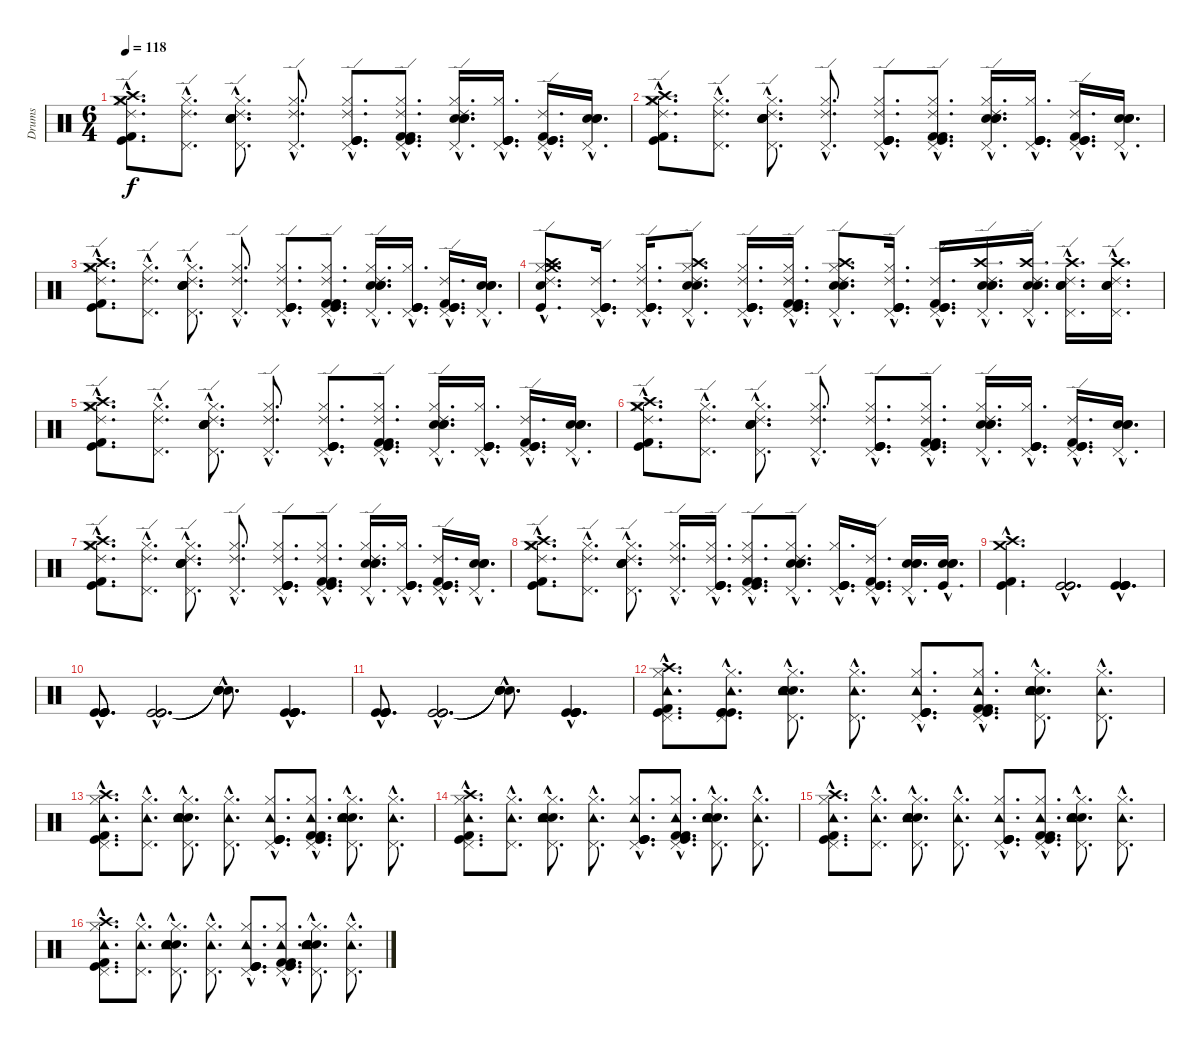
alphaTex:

\track ("Drums" "Drums") {instrument percussion}
\staff {score}
\articulation defaults
\ts (6 4)
\tempo 118
\clef neutral
\ks c
("Ride (edge) 2"{hac} "Crash high (hit)"{hac} "Kick (hit)"{hac} "Kick (hit) 2"{hac} "Hi-Hat (closed)"{hac} "Crash medium (hit)"{hac}).8{d dy f} ("Pedal Hi-Hat (hit)"{hac} "Hi-Hat (closed)"{hac} "Ride (edge) 2"{hac}).8{d} ("Pedal Hi-Hat (hit)"{hac} "Electric Snare (hit)"{hac} "Hand Clap (hit)"{hac} "Hand Clap (hit)"{hac} "Hi-Hat (closed)"{hac} "Ride (edge) 2"{hac}).8{d} ("Pedal Hi-Hat (hit)"{hac} "Hi-Hat (closed)"{hac} "Ride (edge) 2"{hac}).8{d} ("Pedal Hi-Hat (hit)"{hac} "Kick (hit)"{hac} "Kick (hit)"{hac} "Kick (hit)"{hac} "Hi-Hat (closed)"{hac} "Ride (edge) 2"{hac}).8{d} ("Pedal Hi-Hat (hit)"{hac} "Kick (hit)"{hac} "Kick (hit) 2"{hac} "Kick (hit) 2"{hac} "Hi-Hat (closed)"{hac} "Ride (edge) 2"{hac}).8{d} ("Pedal Hi-Hat (hit)"{hac} "Hand Clap (hit)"{hac} "Hand Clap (hit)"{hac} "Electric Snare (hit)"{hac} "Hi-Hat (closed)"{hac} "Ride (edge) 2"{hac}).16{d} ("Pedal Hi-Hat (hit)"{hac} "Kick (hit)"{hac} "Kick (hit)"{hac} "Kick (hit)"{hac} "Hi-Hat (closed)"{hac}).16{d} ("Pedal Hi-Hat (hit)"{hac} "Kick (hit)"{hac} "Kick (hit) 2"{hac} "Kick (hit)"{hac} "Ride (edge) 2"{hac}).16{d} ("Pedal Hi-Hat (hit)"{hac} "Electric Snare (hit)"{hac} "Hand Clap (hit)"{hac} "Electric Snare (hit)"{hac}).16{d} |
("Ride (edge) 2"{hac} "Crash high (hit)"{hac} "Kick (hit)"{hac} "Kick (hit) 2"{hac} "Hi-Hat (closed)"{hac} "Crash medium (hit)"{hac}).8{d} ("Pedal Hi-Hat (hit)"{hac} "Hi-Hat (closed)"{hac} "Ride (edge) 2"{hac}).8{d} ("Pedal Hi-Hat (hit)"{hac} "Electric Snare (hit)"{hac} "Hand Clap (hit)"{hac} "Hand Clap (hit)"{hac} "Hi-Hat (closed)"{hac} "Ride (edge) 2"{hac}).8{d} ("Pedal Hi-Hat (hit)"{hac} "Hi-Hat (closed)"{hac} "Ride (edge) 2"{hac}).8{d} ("Pedal Hi-Hat (hit)"{hac} "Kick (hit)"{hac} "Kick (hit)"{hac} "Kick (hit)"{hac} "Hi-Hat (closed)"{hac} "Ride (edge) 2"{hac}).8{d} ("Pedal Hi-Hat (hit)"{hac} "Kick (hit)"{hac} "Kick (hit) 2"{hac} "Kick (hit) 2"{hac} "Hi-Hat (closed)"{hac} "Ride (edge) 2"{hac}).8{d} ("Pedal Hi-Hat (hit)"{hac} "Hand Clap (hit)"{hac} "Hand Clap (hit)"{hac} "Electric Snare (hit)"{hac} "Hi-Hat (closed)"{hac} "Ride (edge) 2"{hac}).16{d} ("Pedal Hi-Hat (hit)"{hac} "Kick (hit)"{hac} "Kick (hit)"{hac} "Kick (hit)"{hac} "Hi-Hat (closed)"{hac}).16{d} ("Pedal Hi-Hat (hit)"{hac} "Kick (hit)"{hac} "Kick (hit) 2"{hac} "Kick (hit)"{hac} "Ride (edge) 2"{hac}).16{d} ("Pedal Hi-Hat (hit)"{hac} "Electric Snare (hit)"{hac} "Hand Clap (hit)"{hac} "Electric Snare (hit)"{hac}).16{d} |
("Ride (edge) 2"{hac} "Crash high (hit)"{hac} "Kick (hit)"{hac} "Kick (hit) 2"{hac} "Hi-Hat (closed)"{hac} "Crash medium (hit)"{hac}).8{d} ("Pedal Hi-Hat (hit)"{hac} "Hi-Hat (closed)"{hac} "Ride (edge) 2"{hac}).8{d} ("Pedal Hi-Hat (hit)"{hac} "Electric Snare (hit)"{hac} "Hand Clap (hit)"{hac} "Hand Clap (hit)"{hac} "Hi-Hat (closed)"{hac} "Ride (edge) 2"{hac}).8{d} ("Pedal Hi-Hat (hit)"{hac} "Hi-Hat (closed)"{hac} "Ride (edge) 2"{hac}).8{d} ("Pedal Hi-Hat (hit)"{hac} "Kick (hit)"{hac} "Kick (hit)"{hac} "Kick (hit)"{hac} "Hi-Hat (closed)"{hac} "Ride (edge) 2"{hac}).8{d} ("Pedal Hi-Hat (hit)"{hac} "Kick (hit)"{hac} "Kick (hit) 2"{hac} "Kick (hit) 2"{hac} "Hi-Hat (closed)"{hac} "Ride (edge) 2"{hac}).8{d} ("Pedal Hi-Hat (hit)"{hac} "Hand Clap (hit)"{hac} "Hand Clap (hit)"{hac} "Electric Snare (hit)"{hac} "Hi-Hat (closed)"{hac} "Ride (edge) 2"{hac}).16{d} ("Pedal Hi-Hat (hit)"{hac} "Kick (hit)"{hac} "Kick (hit)"{hac} "Kick (hit)"{hac} "Hi-Hat (closed)"{hac}).16{d} ("Pedal Hi-Hat (hit)"{hac} "Kick (hit)"{hac} "Kick (hit) 2"{hac} "Kick (hit)"{hac} "Ride (edge) 2"{hac}).16{d} ("Pedal Hi-Hat (hit)"{hac} "Electric Snare (hit)"{hac} "Hand Clap (hit)"{hac} "Electric Snare (hit)"{hac}).16{d} |
("Ride (edge) 2"{hac} "Crash high (hit)"{hac} "Kick (hit)"{hac} "Electric Snare (hit)"{hac} "Hi-Hat (closed)"{hac} "Crash medium (hit)"{hac}).8{d} ("Pedal Hi-Hat (hit)"{hac} "Kick (hit)"{hac} "Kick (hit)"{hac} "Kick (hit)"{hac} "Ride (edge) 2"{hac}).16{d} ("Pedal Hi-Hat (hit)"{hac} "Kick (hit)"{hac} "Kick (hit)"{hac} "Kick (hit)"{hac} "Hi-Hat (closed)"{hac} "Ride (edge) 2"{hac}).16{d} ("Pedal Hi-Hat (hit)"{hac} "Crash high (hit)"{hac} "Electric Snare (hit)"{hac} "Electric Snare (hit)"{hac} "Hi-Hat (closed)"{hac} "Ride (edge) 2"{hac}).8{d} ("Pedal Hi-Hat (hit)"{hac} "Kick (hit)"{hac} "Kick (hit)"{hac} "Kick (hit)"{hac} "Hi-Hat (closed)"{hac} "Ride (edge) 2"{hac}).16{d} ("Pedal Hi-Hat (hit)"{hac} "Kick (hit)"{hac} "Kick (hit) 2"{hac} "Kick (hit) 2"{hac} "Hi-Hat (closed)"{hac} "Ride (edge) 2"{hac}).16{d} ("Pedal Hi-Hat (hit)"{hac} "Crash high (hit)"{hac} "Hand Clap (hit)"{hac} "Electric Snare (hit)"{hac} "Hi-Hat (closed)"{hac} "Ride (edge) 2"{hac}).8{d} ("Pedal Hi-Hat (hit)"{hac} "Kick (hit)"{hac} "Kick (hit)"{hac} "Kick (hit)"{hac} "Hi-Hat (closed)"{hac} "Ride (edge) 2"{hac}).16{d} ("Pedal Hi-Hat (hit)"{hac} "Kick (hit)"{hac} "Kick (hit) 2"{hac} "Kick (hit)"{hac} "Ride (edge) 2"{hac}).16{d} ("Pedal Hi-Hat (hit)"{hac} "Electric Snare (hit)"{hac} "Hand Clap (hit)"{hac} "Electric Snare (hit)"{hac} "Crash high (hit)"{hac} "Ride (edge) 2"{hac}).16{d} ("Pedal Hi-Hat (hit)"{hac} "Electric Snare (hit)"{hac} "Electric Snare (hit)"{hac} "Crash high (hit)"{hac} "Ride (edge) 2"{hac}).16{d} ("Pedal Hi-Hat (hit)"{hac} "Electric Snare (hit)"{hac} "Electric Snare (hit)"{hac} "Crash high (hit)"{hac} "Ride (edge) 2"{hac}).16{d} ("Pedal Hi-Hat (hit)"{hac} "Electric Snare (hit)"{hac} "Electric Snare (hit)"{hac} "Crash high (hit)"{hac} "Ride (edge) 2"{hac}).16{d} |
("Ride (edge) 2"{hac} "Crash high (hit)"{hac} "Kick (hit)"{hac} "Kick (hit) 2"{hac} "Hi-Hat (closed)"{hac} "Crash medium (hit)"{hac}).8{d} ("Pedal Hi-Hat (hit)"{hac} "Hi-Hat (closed)"{hac} "Ride (edge) 2"{hac}).8{d} ("Pedal Hi-Hat (hit)"{hac} "Electric Snare (hit)"{hac} "Hand Clap (hit)"{hac} "Hand Clap (hit)"{hac} "Hi-Hat (closed)"{hac} "Ride (edge) 2"{hac}).8{d} ("Pedal Hi-Hat (hit)"{hac} "Hi-Hat (closed)"{hac} "Ride (edge) 2"{hac}).8{d} ("Pedal Hi-Hat (hit)"{hac} "Kick (hit)"{hac} "Kick (hit)"{hac} "Kick (hit)"{hac} "Hi-Hat (closed)"{hac} "Ride (edge) 2"{hac}).8{d} ("Pedal Hi-Hat (hit)"{hac} "Kick (hit)"{hac} "Kick (hit) 2"{hac} "Kick (hit) 2"{hac} "Hi-Hat (closed)"{hac} "Ride (edge) 2"{hac}).8{d} ("Pedal Hi-Hat (hit)"{hac} "Hand Clap (hit)"{hac} "Hand Clap (hit)"{hac} "Electric Snare (hit)"{hac} "Hi-Hat (closed)"{hac} "Ride (edge) 2"{hac}).16{d} ("Pedal Hi-Hat (hit)"{hac} "Kick (hit)"{hac} "Kick (hit)"{hac} "Kick (hit)"{hac} "Hi-Hat (closed)"{hac}).16{d} ("Pedal Hi-Hat (hit)"{hac} "Kick (hit)"{hac} "Kick (hit) 2"{hac} "Kick (hit)"{hac} "Ride (edge) 2"{hac}).16{d} ("Pedal Hi-Hat (hit)"{hac} "Electric Snare (hit)"{hac} "Hand Clap (hit)"{hac} "Electric Snare (hit)"{hac}).16{d} |
("Ride (edge) 2"{hac} "Crash high (hit)"{hac} "Kick (hit)"{hac} "Kick (hit) 2"{hac} "Hi-Hat (closed)"{hac} "Crash medium (hit)"{hac}).8{d} ("Pedal Hi-Hat (hit)"{hac} "Hi-Hat (closed)"{hac} "Ride (edge) 2"{hac}).8{d} ("Pedal Hi-Hat (hit)"{hac} "Electric Snare (hit)"{hac} "Hand Clap (hit)"{hac} "Hand Clap (hit)"{hac} "Hi-Hat (closed)"{hac} "Ride (edge) 2"{hac}).8{d} ("Pedal Hi-Hat (hit)"{hac} "Hi-Hat (closed)"{hac} "Ride (edge) 2"{hac}).8{d} ("Pedal Hi-Hat (hit)"{hac} "Kick (hit)"{hac} "Kick (hit)"{hac} "Kick (hit)"{hac} "Hi-Hat (closed)"{hac} "Ride (edge) 2"{hac}).8{d} ("Pedal Hi-Hat (hit)"{hac} "Kick (hit)"{hac} "Kick (hit) 2"{hac} "Kick (hit) 2"{hac} "Hi-Hat (closed)"{hac} "Ride (edge) 2"{hac}).8{d} ("Pedal Hi-Hat (hit)"{hac} "Hand Clap (hit)"{hac} "Hand Clap (hit)"{hac} "Electric Snare (hit)"{hac} "Hi-Hat (closed)"{hac} "Ride (edge) 2"{hac}).16{d} ("Pedal Hi-Hat (hit)"{hac} "Kick (hit)"{hac} "Kick (hit)"{hac} "Kick (hit)"{hac} "Hi-Hat (closed)"{hac}).16{d} ("Pedal Hi-Hat (hit)"{hac} "Kick (hit)"{hac} "Kick (hit) 2"{hac} "Kick (hit)"{hac} "Ride (edge) 2"{hac}).16{d} ("Pedal Hi-Hat (hit)"{hac} "Electric Snare (hit)"{hac} "Hand Clap (hit)"{hac} "Electric Snare (hit)"{hac}).16{d} |
("Ride (edge) 2"{hac} "Crash high (hit)"{hac} "Kick (hit)"{hac} "Kick (hit) 2"{hac} "Hi-Hat (closed)"{hac} "Crash medium (hit)"{hac}).8{d} ("Pedal Hi-Hat (hit)"{hac} "Hi-Hat (closed)"{hac} "Ride (edge) 2"{hac}).8{d} ("Pedal Hi-Hat (hit)"{hac} "Electric Snare (hit)"{hac} "Hand Clap (hit)"{hac} "Hand Clap (hit)"{hac} "Hi-Hat (closed)"{hac} "Ride (edge) 2"{hac}).8{d} ("Pedal Hi-Hat (hit)"{hac} "Hi-Hat (closed)"{hac} "Ride (edge) 2"{hac}).8{d} ("Pedal Hi-Hat (hit)"{hac} "Kick (hit)"{hac} "Kick (hit)"{hac} "Kick (hit)"{hac} "Hi-Hat (closed)"{hac} "Ride (edge) 2"{hac}).8{d} ("Pedal Hi-Hat (hit)"{hac} "Kick (hit)"{hac} "Kick (hit) 2"{hac} "Kick (hit) 2"{hac} "Hi-Hat (closed)"{hac} "Ride (edge) 2"{hac}).8{d} ("Pedal Hi-Hat (hit)"{hac} "Hand Clap (hit)"{hac} "Hand Clap (hit)"{hac} "Electric Snare (hit)"{hac} "Hi-Hat (closed)"{hac} "Ride (edge) 2"{hac}).16{d} ("Pedal Hi-Hat (hit)"{hac} "Kick (hit)"{hac} "Kick (hit)"{hac} "Kick (hit)"{hac} "Hi-Hat (closed)"{hac}).16{d} ("Pedal Hi-Hat (hit)"{hac} "Kick (hit)"{hac} "Kick (hit) 2"{hac} "Kick (hit)"{hac} "Ride (edge) 2"{hac}).16{d} ("Pedal Hi-Hat (hit)"{hac} "Electric Snare (hit)"{hac} "Hand Clap (hit)"{hac} "Electric Snare (hit)"{hac}).16{d} |
("Ride (edge) 2"{hac} "Crash high (hit)"{hac} "Kick (hit)"{hac} "Kick (hit) 2"{hac} "Hi-Hat (closed)"{hac} "Crash medium (hit)"{hac}).8{d} ("Pedal Hi-Hat (hit)"{hac} "Hi-Hat (closed)"{hac} "Ride (edge) 2"{hac}).8{d} ("Pedal Hi-Hat (hit)"{hac} "Electric Snare (hit)"{hac} "Hand Clap (hit)"{hac} "Hand Clap (hit)"{hac} "Hi-Hat (closed)"{hac} "Ride (edge) 2"{hac}).8{d} ("Pedal Hi-Hat (hit)"{hac} "Hi-Hat (closed)"{hac} "Ride (edge) 2"{hac}).16{d} ("Pedal Hi-Hat (hit)"{hac} "Kick (hit)"{hac} "Kick (hit)"{hac} "Kick (hit)"{hac} "Hi-Hat (closed)"{hac} "Ride (edge) 2"{hac}).16{d} ("Pedal Hi-Hat (hit)"{hac} "Kick (hit)"{hac} "Kick (hit) 2"{hac} "Kick (hit) 2"{hac} "Hi-Hat (closed)"{hac} "Ride (edge) 2"{hac}).8{d} ("Pedal Hi-Hat (hit)"{hac} "Hand Clap (hit)"{hac} "Hand Clap (hit)"{hac} "Electric Snare (hit)"{hac} "Hi-Hat (closed)"{hac} "Ride (edge) 2"{hac}).8{d} ("Pedal Hi-Hat (hit)"{hac} "Kick (hit)"{hac} "Kick (hit)"{hac} "Kick (hit)"{hac} "Hi-Hat (closed)"{hac}).16{d} ("Pedal Hi-Hat (hit)"{hac} "Kick (hit)"{hac} "Kick (hit) 2"{hac} "Kick (hit)"{hac} "Ride (edge) 2"{hac}).16{d} ("Pedal Hi-Hat (hit)"{hac} "Electric Snare (hit)"{hac} "Hand Clap (hit)"{hac} "Electric Snare (hit)"{hac}).16{d} ("Kick (hit)"{hac} "Electric Snare (hit)"{hac} "Hand Clap (hit)"{hac} "Electric Snare (hit)"{hac}).16{d} |
("Crash high (hit)"{hac} "Crash medium (hit)"{hac} "Kick (hit)"{hac} "Kick (hit) 2"{hac}).4{d} ("Kick (hit)"{hac} "Kick (hit)"{hac} "Kick (hit)"{hac} "Kick (hit)"{hac}).2{d} ("Kick (hit)"{hac} "Kick (hit)"{hac} "Kick (hit)"{hac} "Kick (hit)"{hac}).4{d} |
("Kick (hit)"{hac} "Kick (hit)"{hac} "Kick (hit)"{hac} "Kick (hit)"{hac}).8{d} ("Kick (hit)"{hac} "Kick (hit)"{hac} "Kick (hit)"{hac} "Kick (hit)"{hac}).2{d} ("Snare (hit)"{hac t} "Snare (hit)"{hac t} "Snare (hit)"{hac t} "Snare (hit)"{hac t}).8{d} ("Kick (hit)"{hac} "Kick (hit)"{hac} "Kick (hit)"{hac} "Kick (hit)"{hac} "Kick (hit)"{hac}).4{d} |
("Kick (hit)"{hac} "Kick (hit)"{hac} "Kick (hit)"{hac} "Kick (hit)"{hac}).8{d} ("Kick (hit)"{hac} "Kick (hit)"{hac} "Kick (hit)"{hac} "Kick (hit)"{hac}).2{d} ("Snare (hit)"{hac t} "Snare (hit)"{hac t} "Snare (hit)"{hac t} "Snare (hit)"{hac t}).8{d} ("Kick (hit)"{hac} "Kick (hit)"{hac} "Kick (hit)"{hac} "Kick (hit)"{hac} "Kick (hit)"{hac}).4{d} |
("Pedal Hi-Hat (hit)"{hac} "Crash high (hit)"{hac} "Kick (hit)"{hac} "Kick (hit) 2"{hac} "Hi-Hat (closed)"{hac} "Tambourine (hit)"{hac}).8{d volume 7} ("Pedal Hi-Hat (hit)"{hac} "Kick (hit)"{hac} "Kick (hit)"{hac} "Kick (hit)"{hac} "Hi-Hat (closed)"{hac} "Tambourine (hit)"{hac}).8{d volume 9} ("Pedal Hi-Hat (hit)"{hac} "Electric Snare (hit)"{hac} "Hand Clap (hit)"{hac} "Hand Clap (hit)"{hac} "Hi-Hat (closed)"{hac} "Tambourine (hit)"{hac}).8{d volume 10} ("Pedal Hi-Hat (hit)"{hac} "Hi-Hat (closed)"{hac} "Tambourine (hit)"{hac}).8{d volume 11} ("Pedal Hi-Hat (hit)"{hac} "Kick (hit)"{hac} "Kick (hit)"{hac} "Kick (hit)"{hac} "Hi-Hat (closed)"{hac} "Tambourine (hit)"{hac}).8{d volume 13} ("Pedal Hi-Hat (hit)"{hac} "Kick (hit)"{hac} "Kick (hit) 2"{hac} "Kick (hit) 2"{hac} "Hi-Hat (closed)"{hac} "Tambourine (hit)"{hac}).8{d volume 14} ("Pedal Hi-Hat (hit)"{hac} "Hand Clap (hit)"{hac} "Hand Clap (hit)"{hac} "Electric Snare (hit)"{hac} "Hi-Hat (closed)"{hac} "Tambourine (hit)"{hac}).8{d volume 15} ("Pedal Hi-Hat (hit)"{hac} "Hi-Hat (closed)"{hac} "Tambourine (hit)"{hac}).8{d volume 16} |
("Pedal Hi-Hat (hit)"{hac} "Crash high (hit)"{hac} "Kick (hit)"{hac} "Kick (hit) 2"{hac} "Hi-Hat (closed)"{hac} "Tambourine (hit)"{hac}).8{d} ("Pedal Hi-Hat (hit)"{hac} "Hi-Hat (closed)"{hac} "Tambourine (hit)"{hac}).8{d} ("Pedal Hi-Hat (hit)"{hac} "Electric Snare (hit)"{hac} "Hand Clap (hit)"{hac} "Hand Clap (hit)"{hac} "Hi-Hat (closed)"{hac} "Tambourine (hit)"{hac}).8{d} ("Pedal Hi-Hat (hit)"{hac} "Hi-Hat (closed)"{hac} "Tambourine (hit)"{hac}).8{d} ("Pedal Hi-Hat (hit)"{hac} "Kick (hit)"{hac} "Kick (hit)"{hac} "Kick (hit)"{hac} "Hi-Hat (closed)"{hac} "Tambourine (hit)"{hac}).8{d} ("Pedal Hi-Hat (hit)"{hac} "Kick (hit)"{hac} "Kick (hit) 2"{hac} "Kick (hit) 2"{hac} "Hi-Hat (closed)"{hac} "Tambourine (hit)"{hac}).8{d} ("Pedal Hi-Hat (hit)"{hac} "Hand Clap (hit)"{hac} "Hand Clap (hit)"{hac} "Electric Snare (hit)"{hac} "Hi-Hat (closed)"{hac} "Tambourine (hit)"{hac}).8{d} ("Pedal Hi-Hat (hit)"{hac} "Hi-Hat (closed)"{hac} "Tambourine (hit)"{hac}).8{d} |
("Pedal Hi-Hat (hit)"{hac} "Crash high (hit)"{hac} "Kick (hit)"{hac} "Kick (hit) 2"{hac} "Hi-Hat (closed)"{hac} "Tambourine (hit)"{hac}).8{d} ("Pedal Hi-Hat (hit)"{hac} "Hi-Hat (closed)"{hac} "Tambourine (hit)"{hac}).8{d} ("Pedal Hi-Hat (hit)"{hac} "Electric Snare (hit)"{hac} "Hand Clap (hit)"{hac} "Hand Clap (hit)"{hac} "Hi-Hat (closed)"{hac} "Tambourine (hit)"{hac}).8{d} ("Pedal Hi-Hat (hit)"{hac} "Hi-Hat (closed)"{hac} "Tambourine (hit)"{hac}).8{d} ("Pedal Hi-Hat (hit)"{hac} "Kick (hit)"{hac} "Kick (hit)"{hac} "Kick (hit)"{hac} "Hi-Hat (closed)"{hac} "Tambourine (hit)"{hac}).8{d} ("Pedal Hi-Hat (hit)"{hac} "Kick (hit)"{hac} "Kick (hit) 2"{hac} "Kick (hit) 2"{hac} "Hi-Hat (closed)"{hac} "Tambourine (hit)"{hac}).8{d} ("Pedal Hi-Hat (hit)"{hac} "Hand Clap (hit)"{hac} "Hand Clap (hit)"{hac} "Electric Snare (hit)"{hac} "Hi-Hat (closed)"{hac} "Tambourine (hit)"{hac}).8{d} ("Pedal Hi-Hat (hit)"{hac} "Hi-Hat (closed)"{hac} "Tambourine (hit)"{hac}).8{d} |
("Pedal Hi-Hat (hit)"{hac} "Crash high (hit)"{hac} "Kick (hit)"{hac} "Kick (hit) 2"{hac} "Hi-Hat (closed)"{hac} "Tambourine (hit)"{hac}).8{d} ("Pedal Hi-Hat (hit)"{hac} "Hi-Hat (closed)"{hac} "Tambourine (hit)"{hac}).8{d} ("Pedal Hi-Hat (hit)"{hac} "Electric Snare (hit)"{hac} "Hand Clap (hit)"{hac} "Hand Clap (hit)"{hac} "Hi-Hat (closed)"{hac} "Tambourine (hit)"{hac}).8{d} ("Pedal Hi-Hat (hit)"{hac} "Hi-Hat (closed)"{hac} "Tambourine (hit)"{hac}).8{d} ("Pedal Hi-Hat (hit)"{hac} "Kick (hit)"{hac} "Kick (hit)"{hac} "Kick (hit)"{hac} "Hi-Hat (closed)"{hac} "Tambourine (hit)"{hac}).8{d} ("Pedal Hi-Hat (hit)"{hac} "Kick (hit)"{hac} "Kick (hit) 2"{hac} "Kick (hit) 2"{hac} "Hi-Hat (closed)"{hac} "Tambourine (hit)"{hac}).8{d} ("Pedal Hi-Hat (hit)"{hac} "Hand Clap (hit)"{hac} "Hand Clap (hit)"{hac} "Electric Snare (hit)"{hac} "Hi-Hat (closed)"{hac} "Tambourine (hit)"{hac}).8{d} ("Pedal Hi-Hat (hit)"{hac} "Hi-Hat (closed)"{hac} "Tambourine (hit)"{hac}).8{d} |
("Pedal Hi-Hat (hit)"{hac} "Crash high (hit)"{hac} "Kick (hit)"{hac} "Kick (hit) 2"{hac} "Hi-Hat (closed)"{hac} "Tambourine (hit)"{hac}).8{d} ("Pedal Hi-Hat (hit)"{hac} "Hi-Hat (closed)"{hac} "Tambourine (hit)"{hac}).8{d} ("Pedal Hi-Hat (hit)"{hac} "Electric Snare (hit)"{hac} "Hand Clap (hit)"{hac} "Hand Clap (hit)"{hac} "Hi-Hat (closed)"{hac} "Tambourine (hit)"{hac}).8{d} ("Pedal Hi-Hat (hit)"{hac} "Hi-Hat (closed)"{hac} "Tambourine (hit)"{hac}).8{d} ("Pedal Hi-Hat (hit)"{hac} "Kick (hit)"{hac} "Kick (hit)"{hac} "Kick (hit)"{hac} "Hi-Hat (closed)"{hac} "Tambourine (hit)"{hac}).8{d} ("Pedal Hi-Hat (hit)"{hac} "Kick (hit)"{hac} "Kick (hit) 2"{hac} "Kick (hit) 2"{hac} "Hi-Hat (closed)"{hac} "Tambourine (hit)"{hac}).8{d} ("Pedal Hi-Hat (hit)"{hac} "Hand Clap (hit)"{hac} "Hand Clap (hit)"{hac} "Electric Snare (hit)"{hac} "Hi-Hat (closed)"{hac} "Tambourine (hit)"{hac}).8{d} ("Pedal Hi-Hat (hit)"{hac} "Hi-Hat (closed)"{hac} "Tambourine (hit)"{hac}).8{d}
